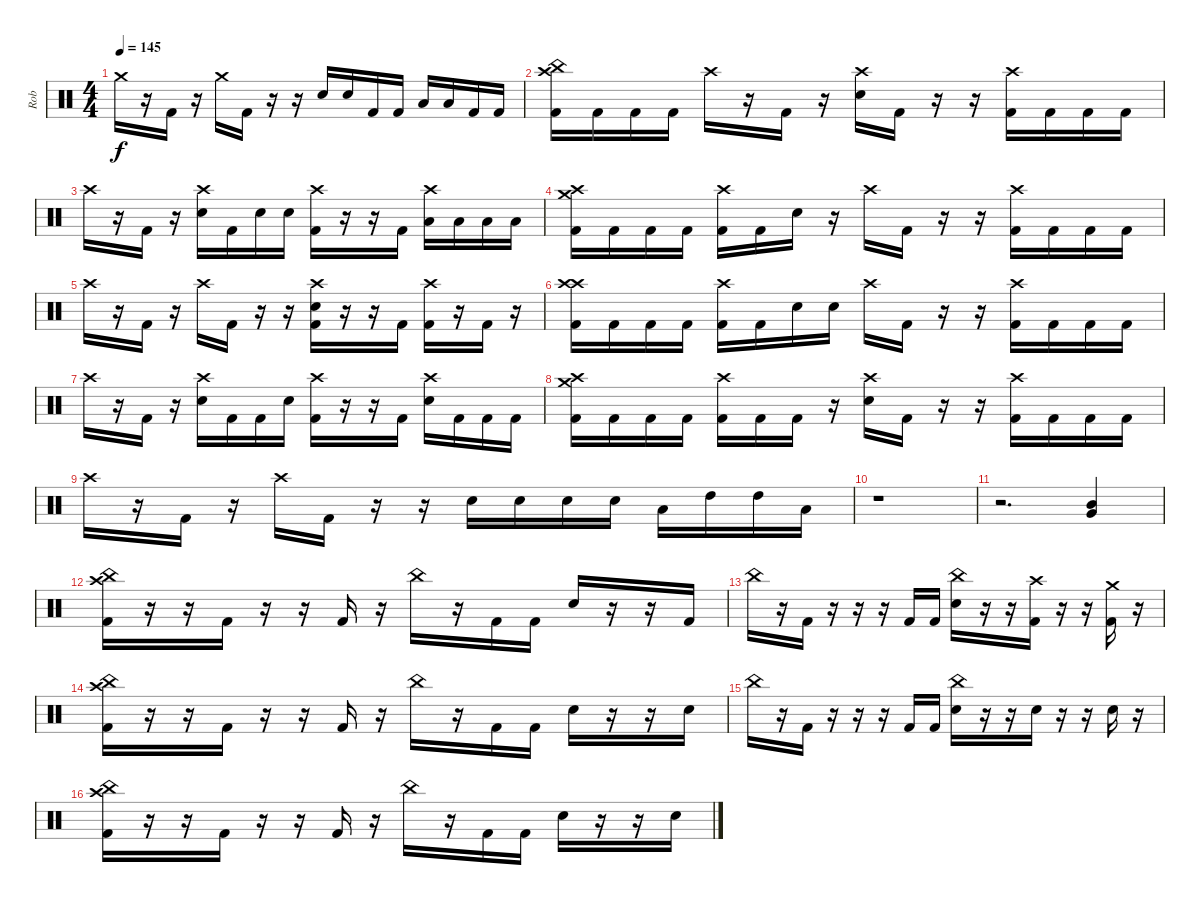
\track ("Rob" "Rob") {instrument percussion}
\staff {score}
\articulation defaults
\ts (4 4)
\tempo 145
\clef neutral
\ks c "Crash medium (hit)".16{dy f}
r.16 "Kick (hit) 2".16 r.16 "Crash medium (hit)".16 "Kick (hit) 2".16 r.16 r.16 "Electric Snare (hit)".16 "Electric Snare (hit)".16 "Kick (hit) 2".16 "Kick (hit) 2".16 "Low Tom (hit)".16 "Low Tom (hit)".16 "Kick (hit) 2".16 "Kick (hit) 2".16 |
("Crash high (hit)" "Kick (hit) 2" "China (hit)").16 "Kick (hit) 2".16 "Kick (hit) 2".16 "Kick (hit) 2".16 "Crash high (hit)".16 r.16 "Kick (hit) 2".16 r.16 ("Electric Snare (hit)" "Crash high (hit)").16 "Kick (hit) 2".16 r.16 r.16 ("Kick (hit) 2" "Crash high (hit)").16 "Kick (hit) 2".16 "Kick (hit) 2".16 "Kick (hit) 2".16 |
"Crash high (hit)".16 r.16 "Kick (hit) 2".16 r.16 ("Electric Snare (hit)" "Crash high (hit)").16 "Kick (hit) 2".16 "Electric Snare (hit)".16 "Electric Snare (hit)".16 ("Kick (hit) 2" "Crash high (hit)").16 r.16 r.16 "Kick (hit) 2".16 ("Low Tom (hit)" "Crash high (hit)").16 "Low Tom (hit)".16 "Low Tom (hit)".16 "Low Tom (hit)".16 |
("Crash high (hit)" "Kick (hit) 2" "Crash medium (hit)").16 "Kick (hit) 2".16 "Kick (hit) 2".16 "Kick (hit) 2".16 ("Kick (hit) 2" "Crash high (hit)").16 "Kick (hit) 2".16 "Electric Snare (hit)".16 r.16 "Crash high (hit)".16 "Kick (hit) 2".16 r.16 r.16 ("Kick (hit) 2" "Crash high (hit)").16 "Kick (hit) 2".16 "Kick (hit) 2".16 "Kick (hit) 2".16 |
"Crash high (hit)".16 r.16 "Kick (hit) 2".16 r.16 "Crash high (hit)".16 "Kick (hit) 2".16 r.16 r.16 ("Electric Snare (hit)" "Kick (hit) 2" "Crash high (hit)").16 r.16 r.16 "Kick (hit) 2".16 ("Kick (hit) 2" "Crash high (hit)").16 r.16 "Kick (hit) 2".16 r.16 |
("Crash high (hit)" "Kick (hit) 2" "Crash high (hit)").16 "Kick (hit) 2".16 "Kick (hit) 2".16 "Kick (hit) 2".16 ("Kick (hit) 2" "Crash high (hit)").16 "Kick (hit) 2".16 "Electric Snare (hit)".16 "Electric Snare (hit)".16 "Crash high (hit)".16 "Kick (hit) 2".16 r.16 r.16 ("Kick (hit) 2" "Crash high (hit)").16 "Kick (hit) 2".16 "Kick (hit) 2".16 "Kick (hit) 2".16 |
"Crash high (hit)".16 r.16 "Kick (hit) 2".16 r.16 ("Electric Snare (hit)" "Crash high (hit)").16 "Kick (hit) 2".16 "Kick (hit) 2".16 "Electric Snare (hit)".16 ("Kick (hit) 2" "Crash high (hit)").16 r.16 r.16 "Kick (hit) 2".16 ("Electric Snare (hit)" "Crash high (hit)").16 "Kick (hit) 2".16 "Kick (hit) 2".16 "Kick (hit) 2".16 |
("Crash medium (hit)" "Kick (hit) 2" "Crash high (hit)").16 "Kick (hit) 2".16 "Kick (hit) 2".16 "Kick (hit) 2".16 ("Kick (hit) 2" "Crash high (hit)").16 "Kick (hit) 2".16 "Kick (hit) 2".16 r.16 ("Electric Snare (hit)" "Crash high (hit)").16 "Kick (hit) 2".16 r.16 r.16 ("Kick (hit) 2" "Crash high (hit)").16 "Kick (hit) 2".16 "Kick (hit) 2".16 "Kick (hit) 2".16 |
"Crash high (hit)".16 r.16 "Kick (hit) 2".16 r.16 "Crash high (hit)".16 "Kick (hit) 2".16 r.16 r.16 "Electric Snare (hit)".16 "Electric Snare (hit)".16 "Electric Snare (hit)".16 "Electric Snare (hit)".16 "Low Tom (hit)".16 "High Tom (hit)".16 "High Tom (hit)".16 "Low Tom (hit)".16 |
r.1 |
r.2{d} ("Mid Tom (hit)" "Very Low Tom (hit)").4 |
("Kick (hit) 2" "Crash high (hit)" "China (hit)").16 r.16 r.16 "Kick (hit) 2".16 r.16 r.16 "Kick (hit) 2".16 r.16 "China (hit)".16 r.16 "Kick (hit) 2".16 "Kick (hit) 2".16 "Electric Snare (hit)".16 r.16 r.16 "Kick (hit) 2".16 |
"China (hit)".16 r.16 "Kick (hit) 2".16 r.16 r.16 r.16 "Kick (hit) 2".16 "Kick (hit) 2".16 ("China (hit)" "Electric Snare (hit)").16 r.16 r.16 ("Crash high (hit)" "Kick (hit) 2").16 r.16 r.16 ("Crash medium (hit)" "Kick (hit) 2").16 r.16 |
("Kick (hit) 2" "Crash high (hit)" "China (hit)").16 r.16 r.16 "Kick (hit) 2".16 r.16 r.16 "Kick (hit) 2".16 r.16 "China (hit)".16 r.16 "Kick (hit) 2".16 "Kick (hit) 2".16 "Electric Snare (hit)".16 r.16 r.16 "Electric Snare (hit)".16 |
"China (hit)".16 r.16 "Kick (hit) 2".16 r.16 r.16 r.16 "Kick (hit) 2".16 "Kick (hit) 2".16 ("China (hit)" "Electric Snare (hit)").16 r.16 r.16 "Electric Snare (hit)".16 r.16 r.16 "Electric Snare (hit)".16 r.16 |
("Kick (hit) 2" "Crash high (hit)" "China (hit)").16 r.16 r.16 "Kick (hit) 2".16 r.16 r.16 "Kick (hit) 2".16 r.16 "China (hit)".16 r.16 "Kick (hit) 2".16 "Kick (hit) 2".16 "Electric Snare (hit)".16 r.16 r.16 "Electric Snare (hit)".16
